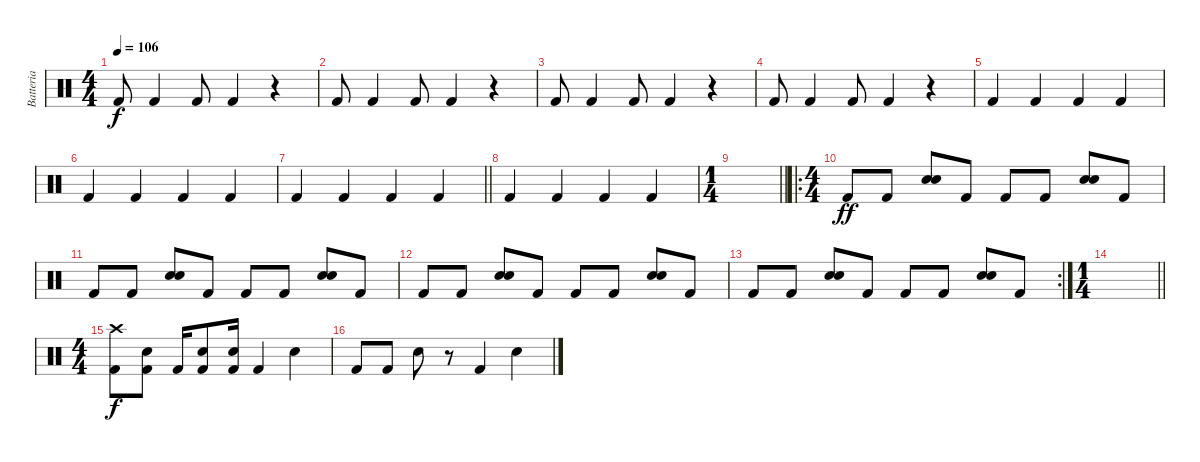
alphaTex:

\track ("Batteria" "Batteria") {instrument percussion}
\staff {score}
\articulation defaults
\ts (4 4)
\tempo 106
\clef neutral
\ks c "Kick (hit) 2".8{dy f} "Kick (hit) 2".4 "Kick (hit) 2".8 "Kick (hit) 2".4
r.4 |
"Kick (hit) 2".8 "Kick (hit) 2".4 "Kick (hit) 2".8 "Kick (hit) 2".4 r.4 |
"Kick (hit) 2".8 "Kick (hit) 2".4 "Kick (hit) 2".8 "Kick (hit) 2".4 r.4 |
"Kick (hit) 2".8 "Kick (hit) 2".4 "Kick (hit) 2".8 "Kick (hit) 2".4 r.4 |
"Kick (hit) 2".4 "Kick (hit) 2".4 "Kick (hit) 2".4 "Kick (hit) 2".4 |
"Kick (hit) 2".4 "Kick (hit) 2".4 "Kick (hit) 2".4 "Kick (hit) 2".4 |
\barLineRight lightlight "Kick (hit) 2".4 "Kick (hit) 2".4 "Kick (hit) 2".4 "Kick (hit) 2".4
|
"Kick (hit) 2".4 "Kick (hit) 2".4 "Kick (hit) 2".4 "Kick (hit) 2".4 |
\ts (1 4)
\barLineRight lightlight
|
\ro
\ts (4 4)
"Kick (hit) 2".8{dy ff} "Kick (hit) 2".8 ("Electric Snare (hit)" "Electric Snare (hit)").8{bd 240} "Kick (hit) 2".8 "Kick (hit) 2".8 "Kick (hit) 2".8 ("Electric Snare (hit)" "Electric Snare (hit)").8{bd 240} "Kick (hit) 2".8 |
"Kick (hit) 2".8 "Kick (hit) 2".8 ("Electric Snare (hit)" "Electric Snare (hit)").8{bd 240} "Kick (hit) 2".8 "Kick (hit) 2".8 "Kick (hit) 2".8 ("Electric Snare (hit)" "Electric Snare (hit)").8{bd 240} "Kick (hit) 2".8 |
"Kick (hit) 2".8 "Kick (hit) 2".8 ("Electric Snare (hit)" "Electric Snare (hit)").8{bd 240} "Kick (hit) 2".8 "Kick (hit) 2".8 "Kick (hit) 2".8 ("Electric Snare (hit)" "Electric Snare (hit)").8{bd 240} "Kick (hit) 2".8 |
\rc 2 "Kick (hit) 2".8 "Kick (hit) 2".8
("Electric Snare (hit)" "Electric Snare (hit)").8{bd 240} "Kick (hit) 2".8 "Kick (hit) 2".8 "Kick (hit) 2".8 ("Electric Snare (hit)" "Electric Snare (hit)").8{bd 240} "Kick (hit) 2".8 |
\ts (1 4)
\barLineRight lightlight
|
\ts (4 4)
("Crash high (hit)" "Kick (hit) 2").8{dy f} ("Electric Snare (hit)" "Kick (hit) 2").8 "Kick (hit) 2".16 ("Electric Snare (hit)" "Kick (hit) 2").8 ("Electric Snare (hit)" "Kick (hit) 2").16 "Kick (hit) 2".4 "Electric Snare (hit)".4 |
"Kick (hit) 2".8 "Kick (hit) 2".8 "Electric Snare (hit)".8 r.8 "Kick (hit) 2".4 "Electric Snare (hit)".4
